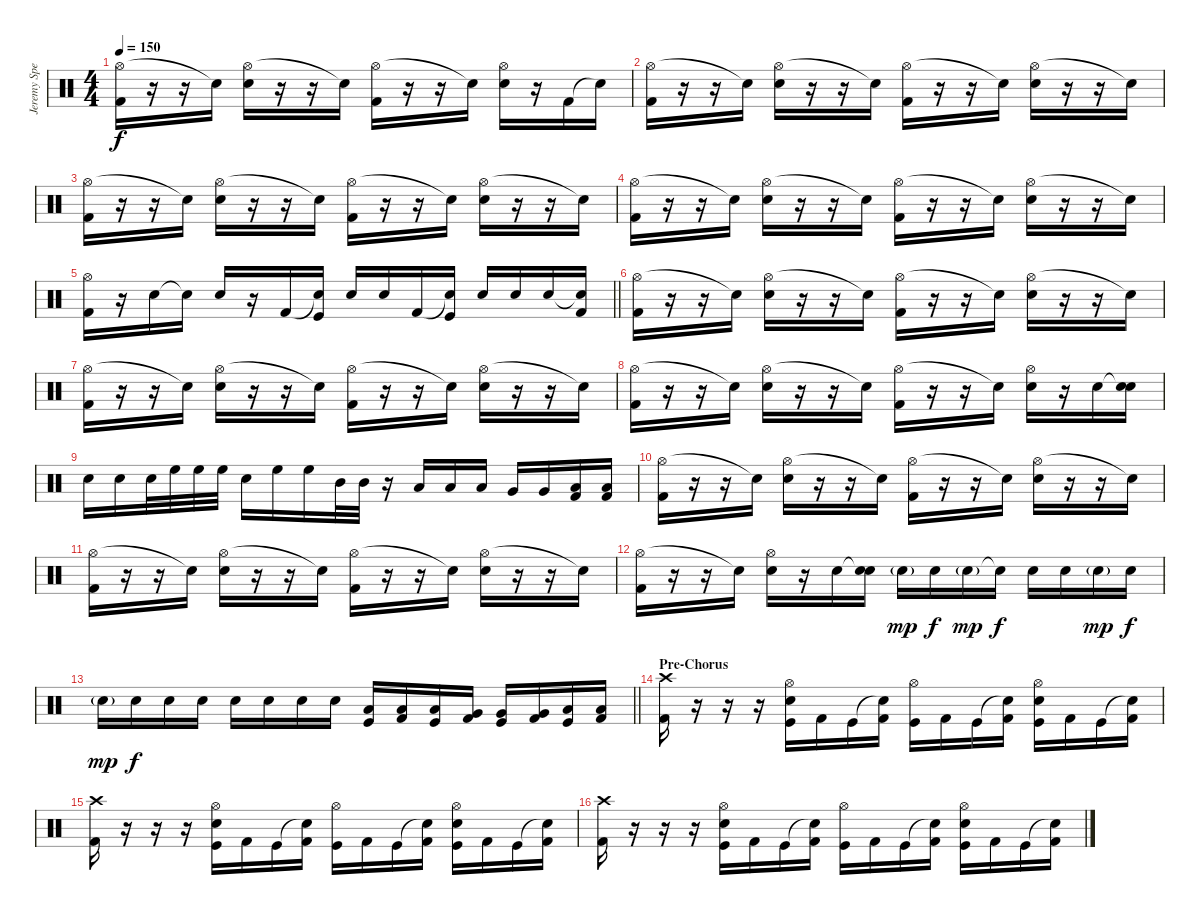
\track ("Jeremy Spencer" "Jeremy Spe") {instrument percussion}
\staff {score}
\articulation defaults
\ts (4 4)
\tempo 150
\clef neutral
\ks c
("Hi-Hat (open)" "Kick (hit) 2").16{dy f} r.16 r.16 "Snare (hit)"{t}.16 ("Hi-Hat (open)" "Snare (hit) 2").16 r.16 r.16 "Snare (hit)"{t}.16 ("Hi-Hat (open)" "Kick (hit) 2").16 r.16 r.16 "Snare (hit)"{t}.16 ("Hi-Hat (open)" "Snare (hit) 2").16 r.16 "Kick (hit) 2".16 "Snare (hit)"{t}.16 |
("Hi-Hat (open)" "Kick (hit) 2").16 r.16 r.16 "Snare (hit)"{t}.16 ("Hi-Hat (open)" "Snare (hit) 2").16 r.16 r.16 "Snare (hit)"{t}.16 ("Hi-Hat (open)" "Kick (hit) 2").16 r.16 r.16 "Snare (hit)"{t}.16 ("Hi-Hat (open)" "Snare (hit) 2").16 r.16 r.16 "Snare (hit)"{t}.16 |
("Hi-Hat (open)" "Kick (hit) 2").16 r.16 r.16 "Snare (hit)"{t}.16 ("Hi-Hat (open)" "Snare (hit) 2").16 r.16 r.16 "Snare (hit)"{t}.16 ("Hi-Hat (open)" "Kick (hit) 2").16 r.16 r.16 "Snare (hit)"{t}.16 ("Hi-Hat (open)" "Snare (hit) 2").16 r.16 r.16 "Snare (hit)"{t}.16 |
("Hi-Hat (open)" "Kick (hit) 2").16 r.16 r.16 "Snare (hit)"{t}.16 ("Hi-Hat (open)" "Snare (hit) 2").16 r.16 r.16 "Snare (hit)"{t}.16 ("Hi-Hat (open)" "Kick (hit) 2").16 r.16 r.16 "Snare (hit)"{t}.16 ("Hi-Hat (open)" "Snare (hit) 2").16 r.16 r.16 "Snare (hit)"{t}.16 |
\barLineRight lightlight
("Hi-Hat (open)" "Kick (hit) 2").16 r.16 "Snare (hit) 2".16 "Snare (hit)"{t}.16 "Snare (hit) 2".16 r.16 "Kick (hit) 2".16 ("Snare (hit)"{t} "Kick (hit)").16 "Snare (hit) 2".16 "Snare (hit) 2".16 "Kick (hit) 2".16 ("Snare (hit)"{t} "Kick (hit)").16 "Snare (hit) 2".16 "Snare (hit) 2".16 "Snare (hit) 2".16 ("Snare (hit)"{t} "Kick (hit) 2").16 |
("Hi-Hat (open)" "Kick (hit) 2").16 r.16 r.16 "Snare (hit)"{t}.16 ("Hi-Hat (open)" "Snare (hit) 2").16 r.16 r.16 "Snare (hit)"{t}.16 ("Hi-Hat (open)" "Kick (hit) 2").16 r.16 r.16 "Snare (hit)"{t}.16 ("Hi-Hat (open)" "Snare (hit) 2").16 r.16 r.16 "Snare (hit)"{t}.16 |
("Hi-Hat (open)" "Kick (hit) 2").16 r.16 r.16 "Snare (hit)"{t}.16 ("Hi-Hat (open)" "Snare (hit) 2").16 r.16 r.16 "Snare (hit)"{t}.16 ("Hi-Hat (open)" "Kick (hit) 2").16 r.16 r.16 "Snare (hit)"{t}.16 ("Hi-Hat (open)" "Snare (hit) 2").16 r.16 r.16 "Snare (hit)"{t}.16 |
("Hi-Hat (open)" "Kick (hit) 2").16 r.16 r.16 "Snare (hit)"{t}.16 ("Hi-Hat (open)" "Snare (hit) 2").16 r.16 r.16 "Snare (hit)"{t}.16 ("Hi-Hat (open)" "Kick (hit) 2").16 r.16 r.16 "Snare (hit)"{t}.16 ("Hi-Hat (open)" "Snare (hit) 2").16 r.16 "Snare (hit) 2".16 ("Snare (hit)"{t} "Snare (hit) 2").16 |
"Snare (hit) 2".16 "Snare (hit) 2".16 "Snare (hit) 2".32 "High Floor Tom (hit)".32 "High Floor Tom (hit)".32 "High Floor Tom (hit)".32 "Snare (hit) 2".16 "High Floor Tom (hit)".16 "High Floor Tom (hit)".16 "Mid Tom (hit)".32 "Mid Tom (hit)".32 r.16 "Low Tom (hit)".16 "Low Tom (hit)".16 "Low Tom (hit)".16 "Very Low Tom (hit)".16 "Very Low Tom (hit)".16 ("Low Floor Tom (hit)" "Kick (hit) 2").16 ("Low Floor Tom (hit)" "Kick (hit) 2").16 |
("Hi-Hat (open)" "Kick (hit) 2").16 r.16 r.16 "Snare (hit)"{t}.16 ("Hi-Hat (open)" "Snare (hit) 2").16 r.16 r.16 "Snare (hit)"{t}.16 ("Hi-Hat (open)" "Kick (hit) 2").16 r.16 r.16 "Snare (hit)"{t}.16 ("Hi-Hat (open)" "Snare (hit) 2").16 r.16 r.16 "Snare (hit)"{t}.16 |
("Hi-Hat (open)" "Kick (hit) 2").16 r.16 r.16 "Snare (hit)"{t}.16 ("Hi-Hat (open)" "Snare (hit) 2").16 r.16 r.16 "Snare (hit)"{t}.16 ("Hi-Hat (open)" "Kick (hit) 2").16 r.16 r.16 "Snare (hit)"{t}.16 ("Hi-Hat (open)" "Snare (hit) 2").16 r.16 r.16 "Snare (hit)"{t}.16 |
("Hi-Hat (open)" "Kick (hit) 2").16 r.16 r.16 "Snare (hit)"{t}.16 ("Hi-Hat (open)" "Snare (hit) 2").16 r.16 "Snare (hit) 2".16 ("Snare (hit)"{t} "Snare (hit) 2").16 "Snare (hit) 2"{g}.16{dy mp} "Snare (hit) 2".16{dy f} "Snare (hit) 2"{g}.16{dy mp} "Snare (hit)"{t}.16{dy f} "Snare (hit) 2".16 "Snare (hit) 2".16 "Snare (hit) 2"{g}.16{dy mp} "Snare (hit) 2".16{dy f} |
\barLineRight lightlight "Snare (hit) 2"{g}.16{dy mp} "Snare (hit) 2".16{dy f} "Snare (hit) 2".16 "Snare (hit) 2".16 "Snare (hit) 2".16 "Snare (hit) 2".16 "Snare (hit) 2".16 "Snare (hit) 2".16
("Low Tom (hit)" "Kick (hit)").16 ("Low Tom (hit)" "Kick (hit) 2").16 ("Low Tom (hit)" "Kick (hit)").16 ("Very Low Tom (hit)" "Kick (hit) 2").16 ("Very Low Tom (hit)" "Kick (hit)").16 ("Very Low Tom (hit)" "Kick (hit) 2").16 ("Low Floor Tom (hit)" "Kick (hit)").16 ("Low Floor Tom (hit)" "Kick (hit) 2").16 |
\section ("" "Pre-Chorus")
("Crash high (hit)" "Kick (hit) 2").16 r.16 r.16 r.16 ("Hi-Hat (open)" "Snare (hit) 2" "Kick (hit)").16 "Kick (hit) 2".16 "Kick (hit)".16 ("Snare (hit)"{t} "Kick (hit) 2").16 ("Hi-Hat (open)" "Kick (hit)").16 "Kick (hit) 2".16 "Kick (hit)".16 ("Snare (hit)"{t} "Kick (hit) 2").16 ("Hi-Hat (open)" "Snare (hit) 2" "Kick (hit)").16 "Kick (hit) 2".16 "Kick (hit)".16 ("Snare (hit)"{t} "Kick (hit) 2").16 |
("Crash high (hit)" "Kick (hit) 2").16 r.16 r.16 r.16 ("Hi-Hat (open)" "Snare (hit) 2" "Kick (hit)").16 "Kick (hit) 2".16 "Kick (hit)".16 ("Snare (hit)"{t} "Kick (hit) 2").16 ("Hi-Hat (open)" "Kick (hit)").16 "Kick (hit) 2".16 "Kick (hit)".16 ("Snare (hit)"{t} "Kick (hit) 2").16 ("Hi-Hat (open)" "Snare (hit) 2" "Kick (hit)").16 "Kick (hit) 2".16 "Kick (hit)".16 ("Snare (hit)"{t} "Kick (hit) 2").16 |
("Crash high (hit)" "Kick (hit) 2").16 r.16 r.16 r.16 ("Hi-Hat (open)" "Snare (hit) 2" "Kick (hit)").16 "Kick (hit) 2".16 "Kick (hit)".16 ("Snare (hit)"{t} "Kick (hit) 2").16 ("Hi-Hat (open)" "Kick (hit)").16 "Kick (hit) 2".16 "Kick (hit)".16 ("Snare (hit)"{t} "Kick (hit) 2").16 ("Hi-Hat (open)" "Snare (hit) 2" "Kick (hit)").16 "Kick (hit) 2".16 "Kick (hit)".16 ("Snare (hit)"{t} "Kick (hit) 2").16
